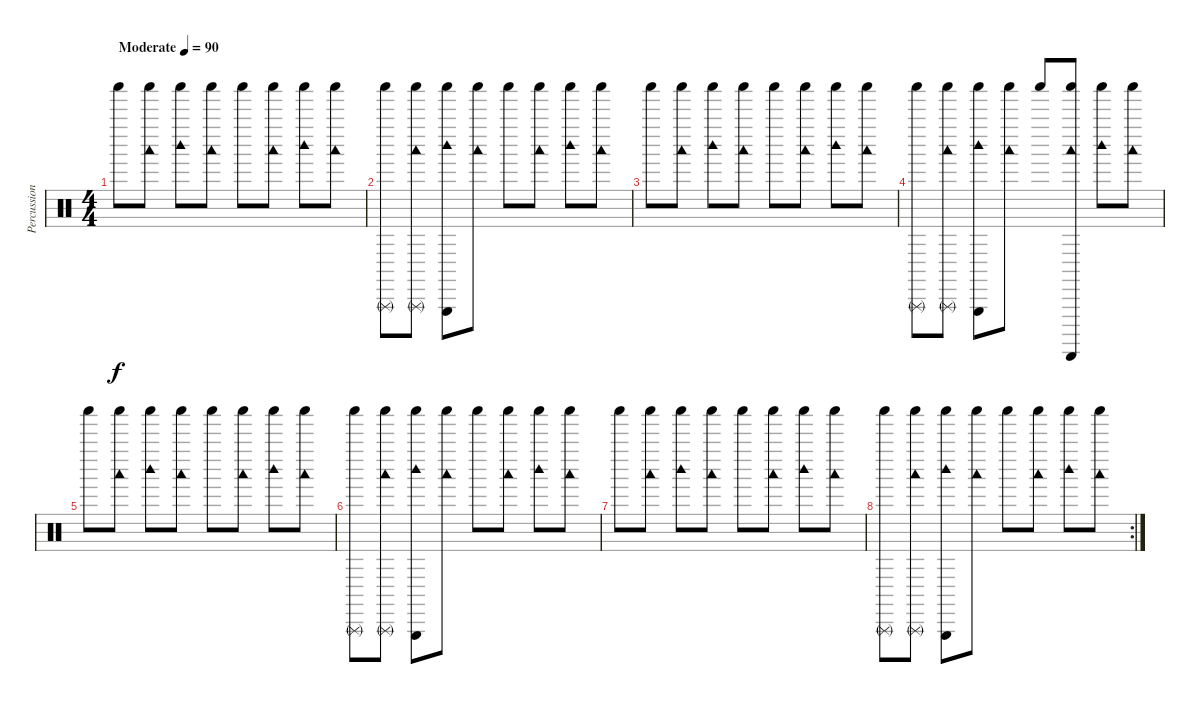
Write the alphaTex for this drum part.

\track ("Percussion" "Percussion") {instrument percussion}
\staff {score}
\articulation defaults
\ts (4 4)
\tempo (90 "Moderate")
\clef neutral
\ks c "Shaker (hit)".8{dy f}
("Shaker (hit)" "Woodblock low (hit)").8 ("Shaker (hit)" "Woodblock high (hit)").8 ("Shaker (hit)" "Woodblock low (hit)").8 "Shaker (hit)".8 ("Shaker (hit)" "Woodblock low (hit)").8 ("Shaker (hit)" "Woodblock high (hit)").8 ("Shaker (hit)" "Woodblock low (hit)").8 |
("Shaker (hit)" "Triangle (rnute)").8 ("Shaker (hit)" "Woodblock low (hit)" "Triangle (rnute)").8 ("Shaker (hit)" "Woodblock high (hit)" "Triangle (hit)").8 ("Shaker (hit)" "Woodblock low (hit)").8 "Shaker (hit)".8 ("Shaker (hit)" "Woodblock low (hit)").8 ("Shaker (hit)" "Woodblock high (hit)").8 ("Shaker (hit)" "Woodblock low (hit)").8 |
"Shaker (hit)".8 ("Shaker (hit)" "Woodblock low (hit)").8 ("Shaker (hit)" "Woodblock high (hit)").8 ("Shaker (hit)" "Woodblock low (hit)").8 "Shaker (hit)".8 ("Shaker (hit)" "Woodblock low (hit)").8 ("Shaker (hit)" "Woodblock high (hit)").8 ("Shaker (hit)" "Woodblock low (hit)").8 |
("Shaker (hit)" "Triangle (rnute)").8 ("Shaker (hit)" "Woodblock low (hit)" "Triangle (rnute)").8 ("Shaker (hit)" "Woodblock high (hit)" "Triangle (hit)").8 ("Shaker (hit)" "Woodblock low (hit)").8 "Shaker (hit)".8 ("Shaker (hit)" "Woodblock low (hit)" "Guiro (scrap-return)").8 ("Shaker (hit)" "Woodblock high (hit)").8 ("Shaker (hit)" "Woodblock low (hit)").8 |
"Shaker (hit)".8 ("Shaker (hit)" "Woodblock low (hit)").8 ("Shaker (hit)" "Woodblock high (hit)").8 ("Shaker (hit)" "Woodblock low (hit)").8 "Shaker (hit)".8 ("Shaker (hit)" "Woodblock low (hit)").8 ("Shaker (hit)" "Woodblock high (hit)").8 ("Shaker (hit)" "Woodblock low (hit)").8 |
("Shaker (hit)" "Triangle (rnute)").8 ("Shaker (hit)" "Woodblock low (hit)" "Triangle (rnute)").8 ("Shaker (hit)" "Woodblock high (hit)" "Triangle (hit)").8 ("Shaker (hit)" "Woodblock low (hit)").8 "Shaker (hit)".8 ("Shaker (hit)" "Woodblock low (hit)").8 ("Shaker (hit)" "Woodblock high (hit)").8 ("Shaker (hit)" "Woodblock low (hit)").8 |
"Shaker (hit)".8 ("Shaker (hit)" "Woodblock low (hit)").8 ("Shaker (hit)" "Woodblock high (hit)").8 ("Shaker (hit)" "Woodblock low (hit)").8 "Shaker (hit)".8 ("Shaker (hit)" "Woodblock low (hit)").8 ("Shaker (hit)" "Woodblock high (hit)").8 ("Shaker (hit)" "Woodblock low (hit)").8 |
\rc 2
("Shaker (hit)" "Triangle (rnute)").8 ("Shaker (hit)" "Woodblock low (hit)" "Triangle (rnute)").8 ("Shaker (hit)" "Woodblock high (hit)" "Triangle (hit)").8 ("Shaker (hit)" "Woodblock low (hit)").8 "Shaker (hit)".8 ("Shaker (hit)" "Woodblock low (hit)").8 ("Shaker (hit)" "Woodblock high (hit)").8 ("Shaker (hit)" "Woodblock low (hit)").8
